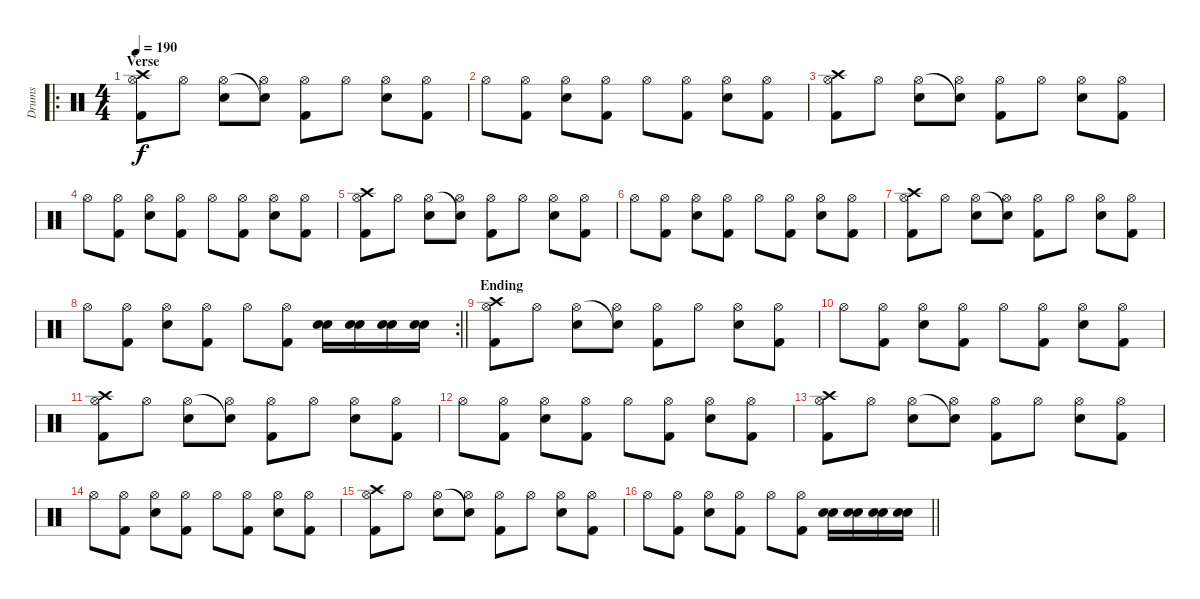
\track ("Drums" "Drums") {instrument percussion}
\staff {score}
\articulation defaults
\ro
\ts (4 4)
\section ("" "Verse")
\tempo 190
\clef neutral
\ks c
("Crash high (hit)" "Hi-Hat (open)" "Kick (hit) 2").8{dy f} "Hi-Hat (open)".8 ("Hi-Hat (open)" "Electric Snare (hit)").8 ("Snare (hit)"{t} "Hi-Hat (open)").8 ("Hi-Hat (open)" "Kick (hit) 2").8 "Hi-Hat (open)".8 ("Hi-Hat (open)" "Electric Snare (hit)").8 ("Hi-Hat (open)" "Kick (hit) 2").8 |
"Hi-Hat (open)".8 ("Hi-Hat (open)" "Kick (hit) 2").8 ("Hi-Hat (open)" "Electric Snare (hit)").8 ("Hi-Hat (open)" "Kick (hit) 2").8 "Hi-Hat (open)".8 ("Hi-Hat (open)" "Kick (hit) 2").8 ("Hi-Hat (open)" "Electric Snare (hit)").8 ("Hi-Hat (open)" "Kick (hit) 2").8 |
("Crash high (hit)" "Hi-Hat (open)" "Kick (hit) 2").8 "Hi-Hat (open)".8 ("Hi-Hat (open)" "Electric Snare (hit)").8 ("Snare (hit)"{t} "Hi-Hat (open)").8 ("Hi-Hat (open)" "Kick (hit) 2").8 "Hi-Hat (open)".8 ("Hi-Hat (open)" "Electric Snare (hit)").8 ("Hi-Hat (open)" "Kick (hit) 2").8 |
"Hi-Hat (open)".8 ("Hi-Hat (open)" "Kick (hit) 2").8 ("Hi-Hat (open)" "Electric Snare (hit)").8 ("Hi-Hat (open)" "Kick (hit) 2").8 "Hi-Hat (open)".8 ("Hi-Hat (open)" "Kick (hit) 2").8 ("Hi-Hat (open)" "Electric Snare (hit)").8 ("Hi-Hat (open)" "Kick (hit) 2").8 |
("Crash high (hit)" "Hi-Hat (open)" "Kick (hit) 2").8 "Hi-Hat (open)".8 ("Hi-Hat (open)" "Electric Snare (hit)").8 ("Snare (hit)"{t} "Hi-Hat (open)").8 ("Hi-Hat (open)" "Kick (hit) 2").8 "Hi-Hat (open)".8 ("Hi-Hat (open)" "Electric Snare (hit)").8 ("Hi-Hat (open)" "Kick (hit) 2").8 |
"Hi-Hat (open)".8 ("Hi-Hat (open)" "Kick (hit) 2").8 ("Hi-Hat (open)" "Electric Snare (hit)").8 ("Hi-Hat (open)" "Kick (hit) 2").8 "Hi-Hat (open)".8 ("Hi-Hat (open)" "Kick (hit) 2").8 ("Hi-Hat (open)" "Electric Snare (hit)").8 ("Hi-Hat (open)" "Kick (hit) 2").8 |
("Crash high (hit)" "Hi-Hat (open)" "Kick (hit) 2").8 "Hi-Hat (open)".8 ("Hi-Hat (open)" "Electric Snare (hit)").8 ("Snare (hit)"{t} "Hi-Hat (open)").8 ("Hi-Hat (open)" "Kick (hit) 2").8 "Hi-Hat (open)".8 ("Hi-Hat (open)" "Electric Snare (hit)").8 ("Hi-Hat (open)" "Kick (hit) 2").8 |
\rc 2
\barLineRight lightlight "Hi-Hat (open)".8
("Hi-Hat (open)" "Kick (hit) 2").8 ("Hi-Hat (open)" "Electric Snare (hit)").8 ("Hi-Hat (open)" "Kick (hit) 2").8 "Hi-Hat (open)".8 ("Hi-Hat (open)" "Kick (hit) 2").8 ("Snare (hit) 2" "Electric Snare (hit)").16 ("Snare (hit) 2" "Electric Snare (hit)").16 ("Snare (hit) 2" "Electric Snare (hit)").16 ("Snare (hit) 2" "Electric Snare (hit)").16 |
\section ("" "Ending")
("Crash high (hit)" "Hi-Hat (open)" "Kick (hit) 2").8 "Hi-Hat (open)".8 ("Hi-Hat (open)" "Electric Snare (hit)").8 ("Snare (hit)"{t} "Hi-Hat (open)").8 ("Hi-Hat (open)" "Kick (hit) 2").8 "Hi-Hat (open)".8 ("Hi-Hat (open)" "Electric Snare (hit)").8 ("Hi-Hat (open)" "Kick (hit) 2").8 |
"Hi-Hat (open)".8 ("Hi-Hat (open)" "Kick (hit) 2").8 ("Hi-Hat (open)" "Electric Snare (hit)").8 ("Hi-Hat (open)" "Kick (hit) 2").8 "Hi-Hat (open)".8 ("Hi-Hat (open)" "Kick (hit) 2").8 ("Hi-Hat (open)" "Electric Snare (hit)").8 ("Hi-Hat (open)" "Kick (hit) 2").8 |
("Crash high (hit)" "Hi-Hat (open)" "Kick (hit) 2").8 "Hi-Hat (open)".8 ("Hi-Hat (open)" "Electric Snare (hit)").8 ("Snare (hit)"{t} "Hi-Hat (open)").8 ("Hi-Hat (open)" "Kick (hit) 2").8 "Hi-Hat (open)".8 ("Hi-Hat (open)" "Electric Snare (hit)").8 ("Hi-Hat (open)" "Kick (hit) 2").8 |
"Hi-Hat (open)".8 ("Hi-Hat (open)" "Kick (hit) 2").8 ("Hi-Hat (open)" "Electric Snare (hit)").8 ("Hi-Hat (open)" "Kick (hit) 2").8 "Hi-Hat (open)".8 ("Hi-Hat (open)" "Kick (hit) 2").8 ("Hi-Hat (open)" "Electric Snare (hit)").8 ("Hi-Hat (open)" "Kick (hit) 2").8 |
("Crash high (hit)" "Hi-Hat (open)" "Kick (hit) 2").8 "Hi-Hat (open)".8 ("Hi-Hat (open)" "Electric Snare (hit)").8 ("Snare (hit)"{t} "Hi-Hat (open)").8 ("Hi-Hat (open)" "Kick (hit) 2").8 "Hi-Hat (open)".8 ("Hi-Hat (open)" "Electric Snare (hit)").8 ("Hi-Hat (open)" "Kick (hit) 2").8 |
"Hi-Hat (open)".8 ("Hi-Hat (open)" "Kick (hit) 2").8 ("Hi-Hat (open)" "Electric Snare (hit)").8 ("Hi-Hat (open)" "Kick (hit) 2").8 "Hi-Hat (open)".8 ("Hi-Hat (open)" "Kick (hit) 2").8 ("Hi-Hat (open)" "Electric Snare (hit)").8 ("Hi-Hat (open)" "Kick (hit) 2").8 |
("Crash high (hit)" "Hi-Hat (open)" "Kick (hit) 2").8 "Hi-Hat (open)".8 ("Hi-Hat (open)" "Electric Snare (hit)").8 ("Snare (hit)"{t} "Hi-Hat (open)").8 ("Hi-Hat (open)" "Kick (hit) 2").8 "Hi-Hat (open)".8 ("Hi-Hat (open)" "Electric Snare (hit)").8 ("Hi-Hat (open)" "Kick (hit) 2").8 |
\barLineRight lightlight "Hi-Hat (open)".8
("Hi-Hat (open)" "Kick (hit) 2").8 ("Hi-Hat (open)" "Electric Snare (hit)").8 ("Hi-Hat (open)" "Kick (hit) 2").8 "Hi-Hat (open)".8 ("Hi-Hat (open)" "Kick (hit) 2").8 ("Snare (hit) 2" "Electric Snare (hit)").16 ("Snare (hit) 2" "Electric Snare (hit)").16 ("Snare (hit) 2" "Electric Snare (hit)").16 ("Snare (hit) 2" "Electric Snare (hit)").16
